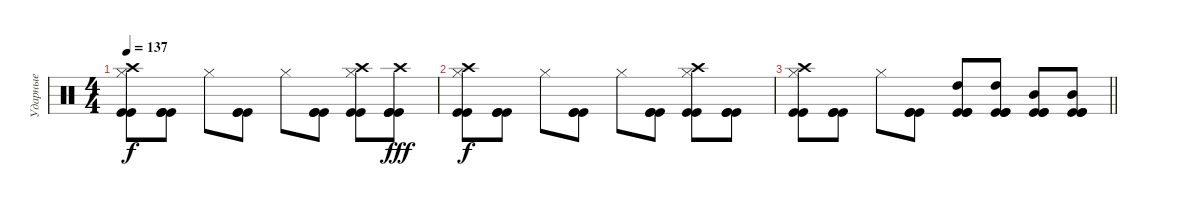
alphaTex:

\track ("Ударные" "Ударные") {instrument percussion}
\staff {score}
\articulation defaults
\ts (4 4)
\tempo 137
\clef neutral
\ks c
("Kick (hit)" "Kick (hit)" "Hi-Hat (closed)" "Crash high (hit)").8{dy f} ("Kick (hit)" "Kick (hit)" "Kick (hit)").8 "Hi-Hat (closed)".8 ("Kick (hit)" "Kick (hit)" "Kick (hit)").8 "Hi-Hat (closed)".8 ("Kick (hit)" "Kick (hit)" "Kick (hit)").8 ("Kick (hit)" "Kick (hit)" "Hi-Hat (closed)" "Crash high (hit)").8 ("Kick (hit)" "Kick (hit)" "Kick (hit)" "Crash high (hit)").8{dy fff} |
("Kick (hit)" "Kick (hit)" "Hi-Hat (closed)" "Crash high (hit)").8{dy f} ("Kick (hit)" "Kick (hit)" "Kick (hit)").8 "Hi-Hat (closed)".8 ("Kick (hit)" "Kick (hit)" "Kick (hit)").8 "Hi-Hat (closed)".8 ("Kick (hit)" "Kick (hit)" "Kick (hit)").8 ("Kick (hit)" "Kick (hit)" "Hi-Hat (closed)" "Crash high (hit)").8 ("Kick (hit)" "Kick (hit)" "Kick (hit)").8 |
\barLineRight lightlight
("Kick (hit)" "Kick (hit)" "Hi-Hat (closed)" "Crash high (hit)").8 ("Kick (hit)" "Kick (hit)" "Kick (hit)").8 "Hi-Hat (closed)".8 ("Kick (hit)" "Kick (hit)" "Kick (hit)").8 ("Kick (hit)" "Kick (hit)" "Kick (hit)" "High Tom (hit)").8 ("Kick (hit)" "Kick (hit)" "Kick (hit)" "High Tom (hit)").8 ("Kick (hit)" "Kick (hit)" "Kick (hit)" "Mid Tom (hit)").8 ("Kick (hit)" "Kick (hit)" "Kick (hit)" "Mid Tom (hit)").8
